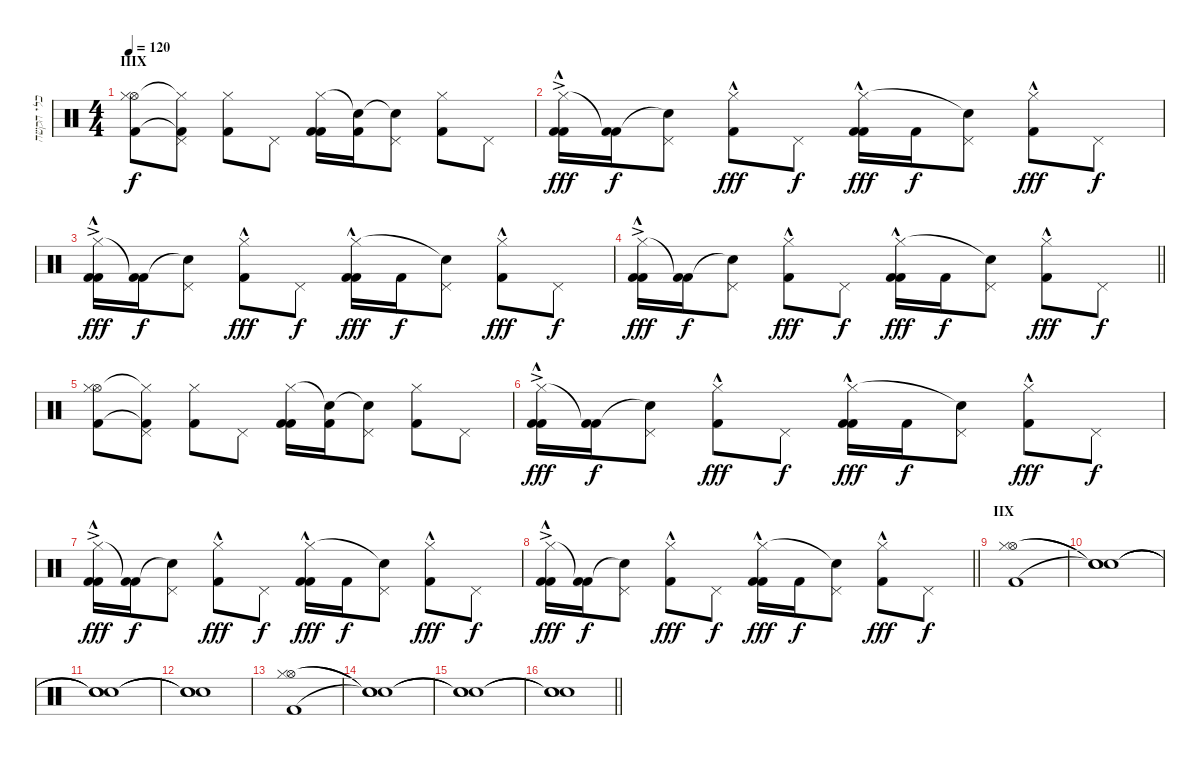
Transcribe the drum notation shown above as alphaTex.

\track ("כלי הקשה" "כלי הקשה") {instrument percussion}
\staff {score}
\articulation defaults
\ts (4 4)
\section ("" "IIIX")
\tempo 120
\clef neutral
\ks c
("Hi-Hat (open)" "Hi-Hat (closed)" "Kick (hit) 2").8{dy f} ("Pedal Hi-Hat (hit)" "Hi-Hat (closed)"{t} "Kick (hit) 2"{t}).8 ("Hi-Hat (closed)" "Kick (hit) 2").8 "Pedal Hi-Hat (hit)".8 ("Kick (hit) 2" "Hi-Hat (closed)" "Kick (hit) 2").16 ("Kick (hit) 2" "Snare (hit)"{t}).16 ("Pedal Hi-Hat (hit)" "Snare (hit)"{t}).8 ("Hi-Hat (closed)" "Kick (hit) 2").8 "Pedal Hi-Hat (hit)".8 |
("Kick (hit) 2"{ac} "Hi-Hat (closed)"{hac} "Kick (hit) 2"{hac}).16{dy fff} ("Kick (hit) 2" "Kick (hit) 2"{t}).16{dy f} ("Pedal Hi-Hat (hit)" "Snare (hit)"{t}).8 ("Hi-Hat (closed)"{hac} "Kick (hit) 2"{hac}).8{dy fff} "Pedal Hi-Hat (hit)".8{dy f} ("Kick (hit) 2" "Hi-Hat (closed)"{hac} "Kick (hit) 2"{hac}).16{dy fff} "Kick (hit) 2".16{dy f} ("Pedal Hi-Hat (hit)" "Snare (hit)"{t}).8 ("Hi-Hat (closed)"{hac} "Kick (hit) 2"{hac}).8{dy fff} "Pedal Hi-Hat (hit)".8{dy f} |
("Kick (hit) 2"{ac} "Hi-Hat (closed)"{hac} "Kick (hit) 2"{hac}).16{dy fff} ("Kick (hit) 2" "Kick (hit) 2"{t}).16{dy f} ("Pedal Hi-Hat (hit)" "Snare (hit)"{t}).8 ("Hi-Hat (closed)"{hac} "Kick (hit) 2"{hac}).8{dy fff} "Pedal Hi-Hat (hit)".8{dy f} ("Kick (hit) 2" "Hi-Hat (closed)"{hac} "Kick (hit) 2"{hac}).16{dy fff} "Kick (hit) 2".16{dy f} ("Pedal Hi-Hat (hit)" "Snare (hit)"{t}).8 ("Hi-Hat (closed)"{hac} "Kick (hit) 2"{hac}).8{dy fff} "Pedal Hi-Hat (hit)".8{dy f} |
\barLineRight lightlight
("Kick (hit) 2"{ac} "Hi-Hat (closed)"{hac} "Kick (hit) 2"{hac}).16{dy fff} ("Kick (hit) 2" "Kick (hit) 2"{t}).16{dy f} ("Pedal Hi-Hat (hit)" "Snare (hit)"{t}).8 ("Hi-Hat (closed)"{hac} "Kick (hit) 2"{hac}).8{dy fff} "Pedal Hi-Hat (hit)".8{dy f} ("Kick (hit) 2" "Hi-Hat (closed)"{hac} "Kick (hit) 2"{hac}).16{dy fff} "Kick (hit) 2".16{dy f} ("Pedal Hi-Hat (hit)" "Snare (hit)"{t}).8 ("Hi-Hat (closed)"{hac} "Kick (hit) 2"{hac}).8{dy fff} "Pedal Hi-Hat (hit)".8{dy f} |
("Hi-Hat (open)" "Hi-Hat (closed)" "Kick (hit) 2").8 ("Pedal Hi-Hat (hit)" "Hi-Hat (closed)"{t} "Kick (hit) 2"{t}).8 ("Hi-Hat (closed)" "Kick (hit) 2").8 "Pedal Hi-Hat (hit)".8 ("Kick (hit) 2" "Hi-Hat (closed)" "Kick (hit) 2").16 ("Kick (hit) 2" "Snare (hit)"{t}).16 ("Pedal Hi-Hat (hit)" "Snare (hit)"{t}).8 ("Hi-Hat (closed)" "Kick (hit) 2").8 "Pedal Hi-Hat (hit)".8 |
("Kick (hit) 2"{ac} "Hi-Hat (closed)"{hac} "Kick (hit) 2"{hac}).16{dy fff} ("Kick (hit) 2" "Kick (hit) 2"{t}).16{dy f} ("Pedal Hi-Hat (hit)" "Snare (hit)"{t}).8 ("Hi-Hat (closed)"{hac} "Kick (hit) 2"{hac}).8{dy fff} "Pedal Hi-Hat (hit)".8{dy f} ("Kick (hit) 2" "Hi-Hat (closed)"{hac} "Kick (hit) 2"{hac}).16{dy fff} "Kick (hit) 2".16{dy f} ("Pedal Hi-Hat (hit)" "Snare (hit)"{t}).8 ("Hi-Hat (closed)"{hac} "Kick (hit) 2"{hac}).8{dy fff} "Pedal Hi-Hat (hit)".8{dy f} |
("Kick (hit) 2"{ac} "Hi-Hat (closed)"{hac} "Kick (hit) 2"{hac}).16{dy fff} ("Kick (hit) 2" "Kick (hit) 2"{t}).16{dy f} ("Pedal Hi-Hat (hit)" "Snare (hit)"{t}).8 ("Hi-Hat (closed)"{hac} "Kick (hit) 2"{hac}).8{dy fff} "Pedal Hi-Hat (hit)".8{dy f} ("Kick (hit) 2" "Hi-Hat (closed)"{hac} "Kick (hit) 2"{hac}).16{dy fff} "Kick (hit) 2".16{dy f} ("Pedal Hi-Hat (hit)" "Snare (hit)"{t}).8 ("Hi-Hat (closed)"{hac} "Kick (hit) 2"{hac}).8{dy fff} "Pedal Hi-Hat (hit)".8{dy f} |
\barLineRight lightlight
("Kick (hit) 2"{ac} "Hi-Hat (closed)"{hac} "Kick (hit) 2"{hac}).16{dy fff} ("Kick (hit) 2" "Kick (hit) 2"{t}).16{dy f} ("Pedal Hi-Hat (hit)" "Snare (hit)"{t}).8 ("Hi-Hat (closed)"{hac} "Kick (hit) 2"{hac}).8{dy fff} "Pedal Hi-Hat (hit)".8{dy f} ("Kick (hit) 2" "Hi-Hat (closed)"{hac} "Kick (hit) 2"{hac}).16{dy fff} "Kick (hit) 2".16{dy f} ("Pedal Hi-Hat (hit)" "Snare (hit)"{t}).8 ("Hi-Hat (closed)"{hac} "Kick (hit) 2"{hac}).8{dy fff} "Pedal Hi-Hat (hit)".8{dy f} |
\section ("" "IIX")
("Hi-Hat (open)" "Hi-Hat (closed)" "Kick (hit) 2").1 |
("Snare (hit)"{t} "Snare (hit)"{t} "Snare (hit)"{t}).1 |
("Snare (hit)"{t} "Snare (hit)"{t} "Snare (hit)"{t}).1 |
("Snare (hit)"{t} "Snare (hit)"{t} "Snare (hit)"{t}).1 |
("Hi-Hat (open)" "Hi-Hat (closed)" "Kick (hit) 2").1 |
("Snare (hit)"{t} "Snare (hit)"{t} "Snare (hit)"{t}).1 |
("Snare (hit)"{t} "Snare (hit)"{t} "Snare (hit)"{t}).1 |
\barLineRight lightlight
("Snare (hit)"{t} "Snare (hit)"{t} "Snare (hit)"{t}).1
